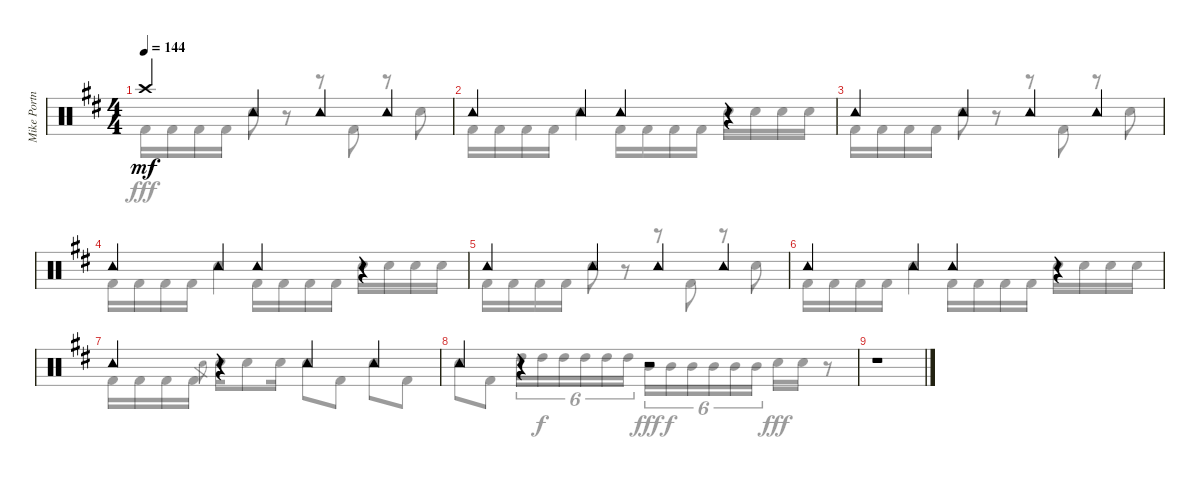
\track ("Mike Portnoy Drums" "Mike Portn") {instrument percussion}
\staff {score}
\articulation defaults
\voice
\ts (4 4)
\tempo 144
\clef neutral
\ks bminor "Crash high (hit)".4{dy mf} "Tambourine (hit)".4 "Tambourine (hit)".4 "Tambourine (hit)".4
|
"Tambourine (hit)".4 "Tambourine (hit)".4 "Tambourine (hit)".4 r.4 |
"Tambourine (hit)".4 "Tambourine (hit)".4 "Tambourine (hit)".4 "Tambourine (hit)".4 |
"Tambourine (hit)".4 "Tambourine (hit)".4 "Tambourine (hit)".4 r.4 |
"Tambourine (hit)".4 "Tambourine (hit)".4 "Tambourine (hit)".4 "Tambourine (hit)".4 |
"Tambourine (hit)".4 "Tambourine (hit)".4 "Tambourine (hit)".4 r.4 |
"Tambourine (hit)".4 r.4 "Tambourine (hit)".4 "Tambourine (hit)".4 |
"Tambourine (hit)".4 r.4 r.2 |
r.1
\voice
\clef neutral
\ottava regular
\simile none
\ks bminor "Kick (hit) 2".16{dy fff} "Kick (hit) 2".16 "Kick (hit) 2".16 "Kick (hit) 2".16 "Snare (hit) 2".8
r.8 r.8 "Kick (hit) 2".8 r.8 "Snare (hit) 2".8 |
"Kick (hit) 2".16 "Kick (hit) 2".16 "Kick (hit) 2".16 "Kick (hit) 2".16 "Snare (hit) 2".4 "Kick (hit) 2".16 "Kick (hit) 2".16 "Kick (hit) 2".16 "Kick (hit) 2".16 "Snare (hit) 2".16 "Snare (hit) 2".16 "Snare (hit) 2".16 "Snare (hit) 2".16 |
"Kick (hit) 2".16 "Kick (hit) 2".16 "Kick (hit) 2".16 "Kick (hit) 2".16 "Snare (hit) 2".8 r.8 r.8 "Kick (hit) 2".8 r.8 "Snare (hit) 2".8 |
"Kick (hit) 2".16 "Kick (hit) 2".16 "Kick (hit) 2".16 "Kick (hit) 2".16 "Snare (hit) 2".4 "Kick (hit) 2".16 "Kick (hit) 2".16 "Kick (hit) 2".16 "Kick (hit) 2".16 "Snare (hit) 2".16 "Snare (hit) 2".16 "Snare (hit) 2".16 "Snare (hit) 2".16 |
"Kick (hit) 2".16 "Kick (hit) 2".16 "Kick (hit) 2".16 "Kick (hit) 2".16 "Snare (hit) 2".8 r.8 r.8 "Kick (hit) 2".8 r.8 "Snare (hit) 2".8 |
"Kick (hit) 2".16 "Kick (hit) 2".16 "Kick (hit) 2".16 "Kick (hit) 2".16 "Snare (hit) 2".4 "Kick (hit) 2".16 "Kick (hit) 2".16 "Kick (hit) 2".16 "Kick (hit) 2".16 "Snare (hit) 2".16 "Snare (hit) 2".16 "Snare (hit) 2".16 "Snare (hit) 2".16 |
"Kick (hit) 2".16 "Kick (hit) 2".16 "Kick (hit) 2".16 "Kick (hit) 2".16 "Snare (hit) 2".8{gr} "Snare (hit) 2".16 "Snare (hit) 2".8 "Snare (hit) 2".16 "Snare (hit) 2".8 "Kick (hit) 2".8 "Snare (hit) 2".8 "Kick (hit) 2".8 |
"Snare (hit) 2".8 "Kick (hit) 2".8 "High Tom (hit)".16{tu (6 4)} "High Tom (hit)".16{tu (6 4) dy f} "High Tom (hit)".16{tu (6 4)} "High Tom (hit)".16{tu (6 4)} "High Tom (hit)".16{tu (6 4)} "High Tom (hit)".16{tu (6 4)} "Mid Tom (hit)".16{tu (6 4) dy fff} "Mid Tom (hit)".16{tu (6 4) dy f} "Mid Tom (hit)".16{tu (6 4)} "Mid Tom (hit)".16{tu (6 4)} "Mid Tom (hit)".16{tu (6 4)} "Mid Tom (hit)".16{tu (6 4)} "Snare (hit) 2".16{dy fff} "Snare (hit) 2".16 r.8 |
r.1
